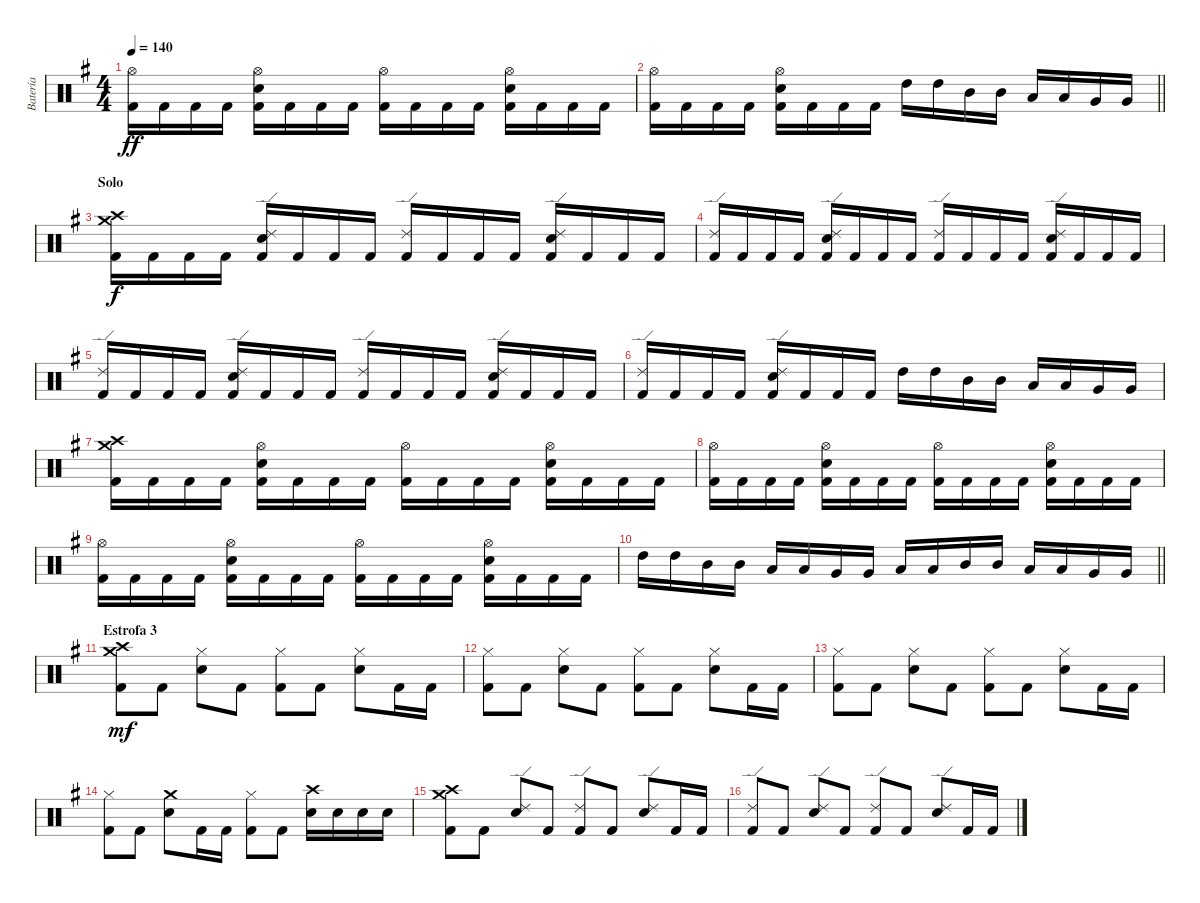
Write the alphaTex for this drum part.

\track ("Batería" "Batería") {instrument percussion}
\staff {score}
\articulation defaults
\ts (4 4)
\tempo 140
\clef neutral
\ks g
("Hi-Hat (open)" "Kick (hit) 2").16{dy ff} "Kick (hit) 2".16 "Kick (hit) 2".16 "Kick (hit) 2".16 ("Hi-Hat (open)" "Snare (hit) 2" "Kick (hit) 2").16 "Kick (hit) 2".16 "Kick (hit) 2".16 "Kick (hit) 2".16 ("Hi-Hat (open)" "Kick (hit) 2").16 "Kick (hit) 2".16 "Kick (hit) 2".16 "Kick (hit) 2".16 ("Hi-Hat (open)" "Snare (hit) 2" "Kick (hit) 2").16 "Kick (hit) 2".16 "Kick (hit) 2".16 "Kick (hit) 2".16 |
\barLineRight lightlight
("Hi-Hat (open)" "Kick (hit) 2").16 "Kick (hit) 2".16 "Kick (hit) 2".16 "Kick (hit) 2".16 ("Hi-Hat (open)" "Snare (hit) 2" "Kick (hit) 2").16 "Kick (hit) 2".16 "Kick (hit) 2".16 "Kick (hit) 2".16 "High Tom (hit)".16 "High Tom (hit)".16 "Mid Tom (hit)".16 "Mid Tom (hit)".16 "Low Tom (hit)".16 "Low Tom (hit)".16 "Very Low Tom (hit)".16 "Very Low Tom (hit)".16 |
\section ("" "Solo")
("Crash medium (hit)" "Crash high (hit)" "Kick (hit) 2").16{dy f} "Kick (hit) 2".16 "Kick (hit) 2".16 "Kick (hit) 2".16 ("Ride (edge) 2" "Snare (hit) 2" "Kick (hit) 2").16 "Kick (hit) 2".16 "Kick (hit) 2".16 "Kick (hit) 2".16 ("Ride (edge) 2" "Kick (hit) 2").16 "Kick (hit) 2".16 "Kick (hit) 2".16 "Kick (hit) 2".16 ("Ride (edge) 2" "Snare (hit) 2" "Kick (hit) 2").16 "Kick (hit) 2".16 "Kick (hit) 2".16 "Kick (hit) 2".16 |
("Ride (edge) 2" "Kick (hit) 2").16 "Kick (hit) 2".16 "Kick (hit) 2".16 "Kick (hit) 2".16 ("Ride (edge) 2" "Snare (hit) 2" "Kick (hit) 2").16 "Kick (hit) 2".16 "Kick (hit) 2".16 "Kick (hit) 2".16 ("Ride (edge) 2" "Kick (hit) 2").16 "Kick (hit) 2".16 "Kick (hit) 2".16 "Kick (hit) 2".16 ("Ride (edge) 2" "Snare (hit) 2" "Kick (hit) 2").16 "Kick (hit) 2".16 "Kick (hit) 2".16 "Kick (hit) 2".16 |
("Ride (edge) 2" "Kick (hit) 2").16 "Kick (hit) 2".16 "Kick (hit) 2".16 "Kick (hit) 2".16 ("Ride (edge) 2" "Snare (hit) 2" "Kick (hit) 2").16 "Kick (hit) 2".16 "Kick (hit) 2".16 "Kick (hit) 2".16 ("Ride (edge) 2" "Kick (hit) 2").16 "Kick (hit) 2".16 "Kick (hit) 2".16 "Kick (hit) 2".16 ("Ride (edge) 2" "Snare (hit) 2" "Kick (hit) 2").16 "Kick (hit) 2".16 "Kick (hit) 2".16 "Kick (hit) 2".16 |
("Ride (edge) 2" "Kick (hit) 2").16 "Kick (hit) 2".16 "Kick (hit) 2".16 "Kick (hit) 2".16 ("Ride (edge) 2" "Snare (hit) 2" "Kick (hit) 2").16 "Kick (hit) 2".16 "Kick (hit) 2".16 "Kick (hit) 2".16 "High Tom (hit)".16 "High Tom (hit)".16 "Mid Tom (hit)".16 "Mid Tom (hit)".16 "Low Tom (hit)".16 "Low Tom (hit)".16 "Very Low Tom (hit)".16 "Very Low Tom (hit)".16 |
("Crash medium (hit)" "Crash high (hit)" "Kick (hit) 2").16 "Kick (hit) 2".16 "Kick (hit) 2".16 "Kick (hit) 2".16 ("Hi-Hat (open)" "Snare (hit) 2" "Kick (hit) 2").16 "Kick (hit) 2".16 "Kick (hit) 2".16 "Kick (hit) 2".16 ("Hi-Hat (open)" "Kick (hit) 2").16 "Kick (hit) 2".16 "Kick (hit) 2".16 "Kick (hit) 2".16 ("Hi-Hat (open)" "Snare (hit) 2" "Kick (hit) 2").16 "Kick (hit) 2".16 "Kick (hit) 2".16 "Kick (hit) 2".16 |
("Hi-Hat (open)" "Kick (hit) 2").16 "Kick (hit) 2".16 "Kick (hit) 2".16 "Kick (hit) 2".16 ("Hi-Hat (open)" "Snare (hit) 2" "Kick (hit) 2").16 "Kick (hit) 2".16 "Kick (hit) 2".16 "Kick (hit) 2".16 ("Hi-Hat (open)" "Kick (hit) 2").16 "Kick (hit) 2".16 "Kick (hit) 2".16 "Kick (hit) 2".16 ("Hi-Hat (open)" "Snare (hit) 2" "Kick (hit) 2").16 "Kick (hit) 2".16 "Kick (hit) 2".16 "Kick (hit) 2".16 |
("Hi-Hat (open)" "Kick (hit) 2").16 "Kick (hit) 2".16 "Kick (hit) 2".16 "Kick (hit) 2".16 ("Hi-Hat (open)" "Snare (hit) 2" "Kick (hit) 2").16 "Kick (hit) 2".16 "Kick (hit) 2".16 "Kick (hit) 2".16 ("Hi-Hat (open)" "Kick (hit) 2").16 "Kick (hit) 2".16 "Kick (hit) 2".16 "Kick (hit) 2".16 ("Hi-Hat (open)" "Snare (hit) 2" "Kick (hit) 2").16 "Kick (hit) 2".16 "Kick (hit) 2".16 "Kick (hit) 2".16 |
\barLineRight lightlight "High Tom (hit)".16 "High Tom (hit)".16 "Mid Tom (hit)".16 "Mid Tom (hit)".16 "Low Tom (hit)".16 "Low Tom (hit)".16 "Very Low Tom (hit)".16 "Very Low Tom (hit)".16 "Low Floor Tom (hit)".16 "Low Floor Tom (hit)".16 "Mid Tom (hit)".16 "Mid Tom (hit)".16 "Low Tom (hit)".16 "Low Tom (hit)".16 "Very Low Tom (hit)".16 "Very Low Tom (hit)".16
|
\section ("" "Estrofa 3")
("Crash medium (hit)" "Crash high (hit)" "Kick (hit) 2").8{dy mf} "Kick (hit) 2".8 ("Hi-Hat (closed)" "Snare (hit) 2").8 "Kick (hit) 2".8 ("Hi-Hat (closed)" "Kick (hit) 2").8 "Kick (hit) 2".8 ("Hi-Hat (closed)" "Snare (hit) 2").8 "Kick (hit) 2".16 "Kick (hit) 2".16 |
("Hi-Hat (closed)" "Kick (hit) 2").8 "Kick (hit) 2".8 ("Hi-Hat (closed)" "Snare (hit) 2").8 "Kick (hit) 2".8 ("Hi-Hat (closed)" "Kick (hit) 2").8 "Kick (hit) 2".8 ("Hi-Hat (closed)" "Snare (hit) 2").8 "Kick (hit) 2".16 "Kick (hit) 2".16 |
("Hi-Hat (closed)" "Kick (hit) 2").8 "Kick (hit) 2".8 ("Hi-Hat (closed)" "Snare (hit) 2").8 "Kick (hit) 2".8 ("Hi-Hat (closed)" "Kick (hit) 2").8 "Kick (hit) 2".8 ("Hi-Hat (closed)" "Snare (hit) 2").8 "Kick (hit) 2".16 "Kick (hit) 2".16 |
("Hi-Hat (closed)" "Kick (hit) 2").8 "Kick (hit) 2".8 ("Crash medium (hit)" "Snare (hit) 2").8 "Kick (hit) 2".16 "Kick (hit) 2".16 ("Hi-Hat (closed)" "Kick (hit) 2").8 "Kick (hit) 2".8 ("Crash high (hit)" "Snare (hit) 2").16 "Snare (hit) 2".16 "Snare (hit) 2".16 "Snare (hit) 2".16 |
("Crash medium (hit)" "Crash high (hit)" "Kick (hit) 2").8 "Kick (hit) 2".8 ("Ride (edge) 2" "Snare (hit) 2").8 "Kick (hit) 2".8 ("Ride (edge) 2" "Kick (hit) 2").8 "Kick (hit) 2".8 ("Ride (edge) 2" "Snare (hit) 2").8 "Kick (hit) 2".16 "Kick (hit) 2".16 |
("Ride (edge) 2" "Kick (hit) 2").8 "Kick (hit) 2".8 ("Ride (edge) 2" "Snare (hit) 2").8 "Kick (hit) 2".8 ("Ride (edge) 2" "Kick (hit) 2").8 "Kick (hit) 2".8 ("Ride (edge) 2" "Snare (hit) 2").8 "Kick (hit) 2".16 "Kick (hit) 2".16
